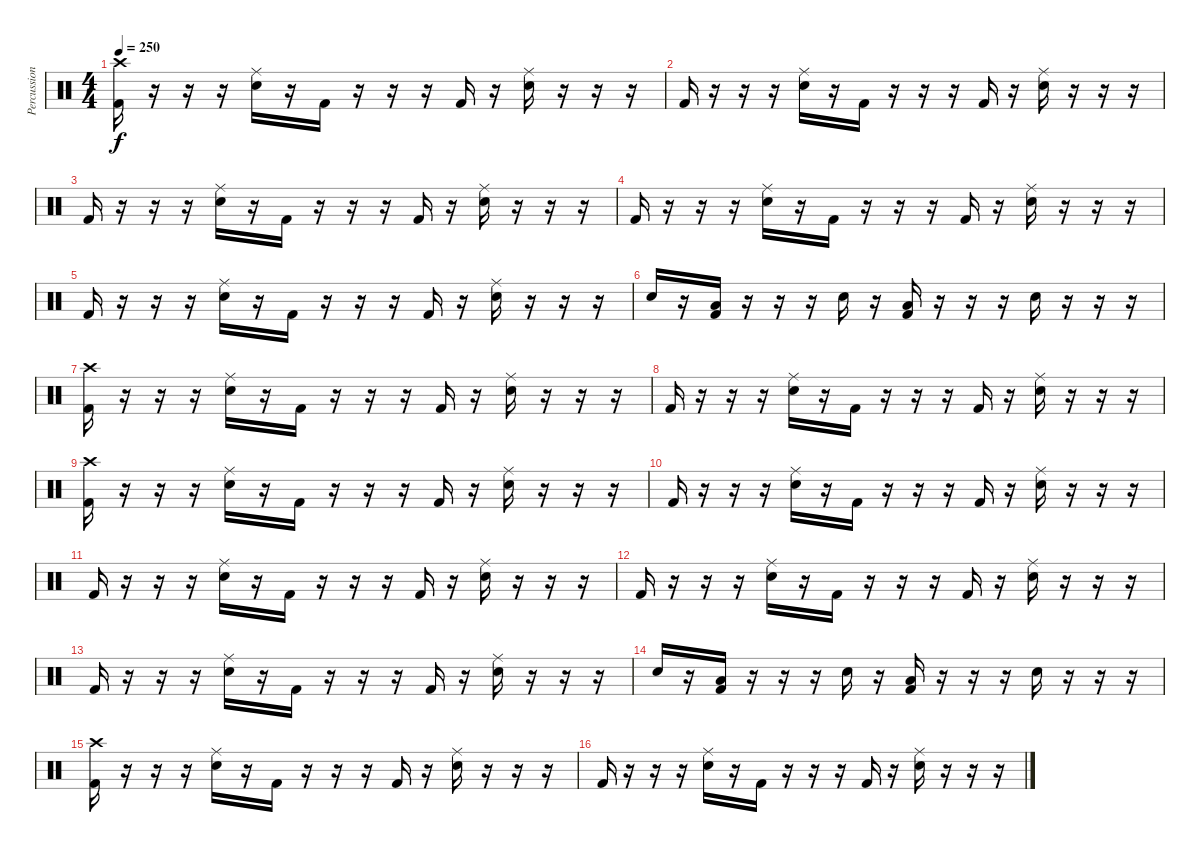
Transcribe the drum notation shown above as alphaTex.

\track ("Percussion" "Percussion") {instrument percussion}
\staff {score}
\articulation defaults
\ts (4 4)
\tempo 250
\clef neutral
\ks c
("Crash high (hit)" "Kick (hit) 2").16{dy f} r.16 r.16 r.16 ("Ride (middle)" "Snare (hit) 2").16 r.16 "Kick (hit) 2".16 r.16 r.16 r.16 "Kick (hit) 2".16 r.16 ("Ride (middle)" "Snare (hit) 2").16 r.16 r.16 r.16 |
"Kick (hit) 2".16 r.16 r.16 r.16 ("Ride (middle)" "Snare (hit) 2").16 r.16 "Kick (hit) 2".16 r.16 r.16 r.16 "Kick (hit) 2".16 r.16 ("Ride (middle)" "Snare (hit) 2").16 r.16 r.16 r.16 |
"Kick (hit) 2".16 r.16 r.16 r.16 ("Ride (middle)" "Snare (hit) 2").16 r.16 "Kick (hit) 2".16 r.16 r.16 r.16 "Kick (hit) 2".16 r.16 ("Ride (middle)" "Snare (hit) 2").16 r.16 r.16 r.16 |
"Kick (hit) 2".16 r.16 r.16 r.16 ("Ride (middle)" "Snare (hit) 2").16 r.16 "Kick (hit) 2".16 r.16 r.16 r.16 "Kick (hit) 2".16 r.16 ("Ride (middle)" "Snare (hit) 2").16 r.16 r.16 r.16 |
"Kick (hit) 2".16 r.16 r.16 r.16 ("Ride (middle)" "Snare (hit) 2").16 r.16 "Kick (hit) 2".16 r.16 r.16 r.16 "Kick (hit) 2".16 r.16 ("Ride (middle)" "Snare (hit) 2").16 r.16 r.16 r.16 |
"Snare (hit) 2".16 r.16 ("Low Tom (hit)" "Kick (hit) 2").16 r.16 r.16 r.16 "Snare (hit) 2".16 r.16 ("Low Tom (hit)" "Kick (hit) 2").16 r.16 r.16 r.16 "Snare (hit) 2".16 r.16 r.16 r.16 |
("Crash high (hit)" "Kick (hit) 2").16 r.16 r.16 r.16 ("Ride (middle)" "Snare (hit) 2").16 r.16 "Kick (hit) 2".16 r.16 r.16 r.16 "Kick (hit) 2".16 r.16 ("Ride (middle)" "Snare (hit) 2").16 r.16 r.16 r.16 |
"Kick (hit) 2".16 r.16 r.16 r.16 ("Ride (middle)" "Snare (hit) 2").16 r.16 "Kick (hit) 2".16 r.16 r.16 r.16 "Kick (hit) 2".16 r.16 ("Ride (middle)" "Snare (hit) 2").16 r.16 r.16 r.16 |
("Crash high (hit)" "Kick (hit) 2").16 r.16 r.16 r.16 ("Ride (middle)" "Snare (hit) 2").16 r.16 "Kick (hit) 2".16 r.16 r.16 r.16 "Kick (hit) 2".16 r.16 ("Ride (middle)" "Snare (hit) 2").16 r.16 r.16 r.16 |
"Kick (hit) 2".16 r.16 r.16 r.16 ("Ride (middle)" "Snare (hit) 2").16 r.16 "Kick (hit) 2".16 r.16 r.16 r.16 "Kick (hit) 2".16 r.16 ("Ride (middle)" "Snare (hit) 2").16 r.16 r.16 r.16 |
"Kick (hit) 2".16 r.16 r.16 r.16 ("Ride (middle)" "Snare (hit) 2").16 r.16 "Kick (hit) 2".16 r.16 r.16 r.16 "Kick (hit) 2".16 r.16 ("Ride (middle)" "Snare (hit) 2").16 r.16 r.16 r.16 |
"Kick (hit) 2".16 r.16 r.16 r.16 ("Ride (middle)" "Snare (hit) 2").16 r.16 "Kick (hit) 2".16 r.16 r.16 r.16 "Kick (hit) 2".16 r.16 ("Ride (middle)" "Snare (hit) 2").16 r.16 r.16 r.16 |
"Kick (hit) 2".16 r.16 r.16 r.16 ("Ride (middle)" "Snare (hit) 2").16 r.16 "Kick (hit) 2".16 r.16 r.16 r.16 "Kick (hit) 2".16 r.16 ("Ride (middle)" "Snare (hit) 2").16 r.16 r.16 r.16 |
"Snare (hit) 2".16 r.16 ("Low Tom (hit)" "Kick (hit) 2").16 r.16 r.16 r.16 "Snare (hit) 2".16 r.16 ("Low Tom (hit)" "Kick (hit) 2").16 r.16 r.16 r.16 "Snare (hit) 2".16 r.16 r.16 r.16 |
("Crash high (hit)" "Kick (hit) 2").16 r.16 r.16 r.16 ("Ride (middle)" "Snare (hit) 2").16 r.16 "Kick (hit) 2".16 r.16 r.16 r.16 "Kick (hit) 2".16 r.16 ("Ride (middle)" "Snare (hit) 2").16 r.16 r.16 r.16 |
"Kick (hit) 2".16 r.16 r.16 r.16 ("Ride (middle)" "Snare (hit) 2").16 r.16 "Kick (hit) 2".16 r.16 r.16 r.16 "Kick (hit) 2".16 r.16 ("Ride (middle)" "Snare (hit) 2").16 r.16 r.16 r.16
